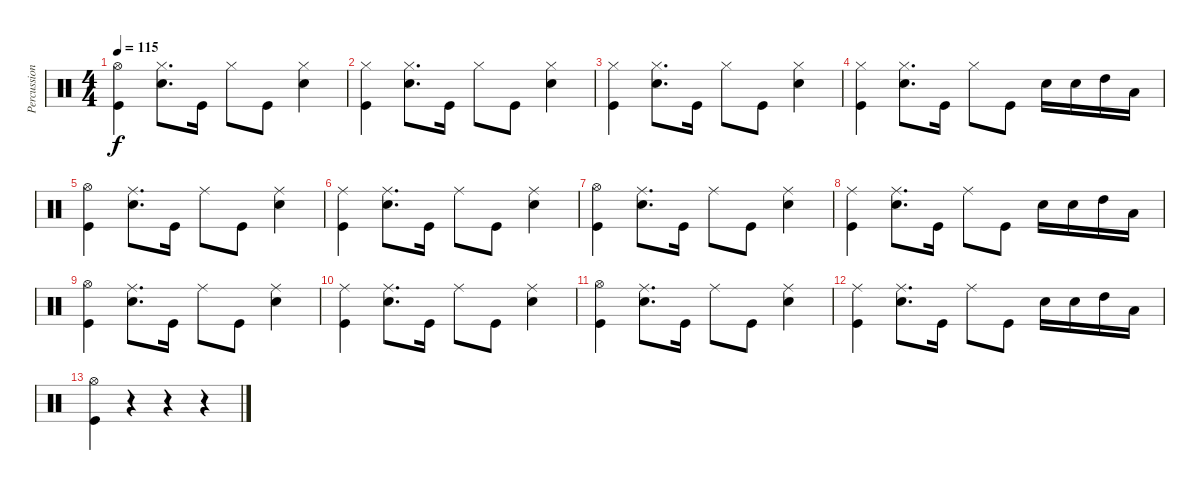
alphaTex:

\track ("Percussion 1" "Percussion") {instrument percussion}
\staff {score}
\articulation defaults
\ts (4 4)
\tempo 115
\clef neutral
\ks c
("Hi-Hat (open)" "Kick (hit)").4{dy f} ("Hi-Hat (closed)" "Snare (hit) 2").8{d} "Kick (hit)".16 "Hi-Hat (closed)".8 "Kick (hit)".8 ("Hi-Hat (closed)" "Snare (hit) 2").4 |
("Kick (hit)" "Hi-Hat (closed)").4 ("Hi-Hat (closed)" "Snare (hit) 2").8{d} "Kick (hit)".16 "Hi-Hat (closed)".8 "Kick (hit)".8 ("Hi-Hat (closed)" "Snare (hit) 2").4 |
("Kick (hit)" "Hi-Hat (closed)").4 ("Hi-Hat (closed)" "Snare (hit) 2").8{d} "Kick (hit)".16 "Hi-Hat (closed)".8 "Kick (hit)".8 ("Hi-Hat (closed)" "Snare (hit) 2").4 |
("Kick (hit)" "Hi-Hat (closed)").4 ("Hi-Hat (closed)" "Snare (hit) 2").8{d} "Kick (hit)".16 "Hi-Hat (closed)".8 "Kick (hit)".8 "Snare (hit) 2".16 "Snare (hit) 2".16 "High Tom (hit)".16 "Low Tom (hit)".16 |
("Hi-Hat (open)" "Kick (hit)").4 ("Ride (middle)" "Snare (hit) 2").8{d} "Kick (hit)".16 "Ride (middle)".8 "Kick (hit)".8 ("Ride (middle)" "Snare (hit) 2").4 |
("Ride (middle)" "Kick (hit)").4 ("Ride (middle)" "Snare (hit) 2").8{d} "Kick (hit)".16 "Ride (middle)".8 "Kick (hit)".8 ("Ride (middle)" "Snare (hit) 2").4 |
("Hi-Hat (open)" "Kick (hit)").4 ("Ride (middle)" "Snare (hit) 2").8{d} "Kick (hit)".16 "Ride (middle)".8 "Kick (hit)".8 ("Ride (middle)" "Snare (hit) 2").4 |
("Ride (middle)" "Kick (hit)").4 ("Ride (middle)" "Snare (hit) 2").8{d} "Kick (hit)".16 "Ride (middle)".8 "Kick (hit)".8 "Snare (hit) 2".16 "Snare (hit) 2".16 "High Tom (hit)".16 "Low Tom (hit)".16 |
("Hi-Hat (open)" "Kick (hit)").4 ("Ride (middle)" "Snare (hit) 2").8{d} "Kick (hit)".16 "Ride (middle)".8 "Kick (hit)".8 ("Ride (middle)" "Snare (hit) 2").4 |
("Ride (middle)" "Kick (hit)").4 ("Ride (middle)" "Snare (hit) 2").8{d} "Kick (hit)".16 "Ride (middle)".8 "Kick (hit)".8 ("Ride (middle)" "Snare (hit) 2").4 |
("Hi-Hat (open)" "Kick (hit)").4 ("Ride (middle)" "Snare (hit) 2").8{d} "Kick (hit)".16 "Ride (middle)".8 "Kick (hit)".8 ("Ride (middle)" "Snare (hit) 2").4 |
("Ride (middle)" "Kick (hit)").4 ("Ride (middle)" "Snare (hit) 2").8{d} "Kick (hit)".16 "Ride (middle)".8 "Kick (hit)".8 "Snare (hit) 2".16 "Snare (hit) 2".16 "High Tom (hit)".16 "Low Tom (hit)".16 |
("Hi-Hat (open)" "Kick (hit)").4 r.4 r.4 r.4
